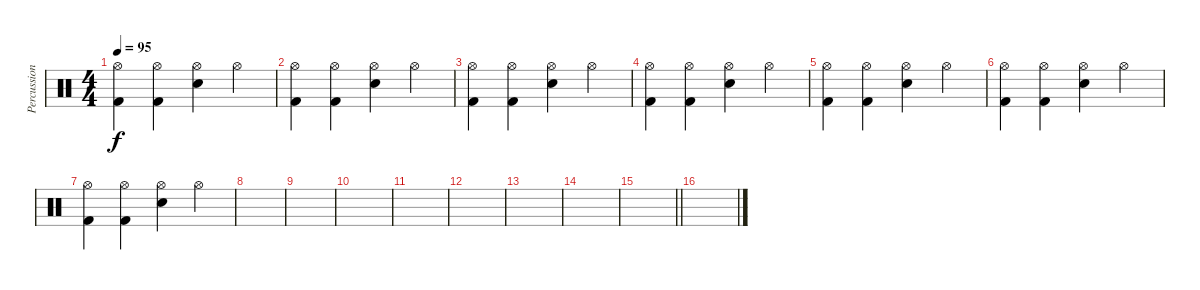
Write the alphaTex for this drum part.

\track ("Percussion" "Percussion") {instrument percussion}
\staff {score}
\articulation defaults
\ts (4 4)
\tempo 95
\clef neutral
\ks c
("Hi-Hat (open)" "Kick (hit) 2").4{dy f} ("Hi-Hat (open)" "Kick (hit) 2").4 ("Hi-Hat (open)" "Snare (hit) 2").4 "Hi-Hat (open)".4 |
("Hi-Hat (open)" "Kick (hit) 2").4 ("Hi-Hat (open)" "Kick (hit) 2").4 ("Hi-Hat (open)" "Snare (hit) 2").4 "Hi-Hat (open)".4 |
("Hi-Hat (open)" "Kick (hit) 2").4 ("Hi-Hat (open)" "Kick (hit) 2").4 ("Hi-Hat (open)" "Snare (hit) 2").4 "Hi-Hat (open)".4 |
("Hi-Hat (open)" "Kick (hit) 2").4 ("Hi-Hat (open)" "Kick (hit) 2").4 ("Hi-Hat (open)" "Snare (hit) 2").4 "Hi-Hat (open)".4 |
("Hi-Hat (open)" "Kick (hit) 2").4 ("Hi-Hat (open)" "Kick (hit) 2").4 ("Hi-Hat (open)" "Snare (hit) 2").4 "Hi-Hat (open)".4 |
("Hi-Hat (open)" "Kick (hit) 2").4 ("Hi-Hat (open)" "Kick (hit) 2").4 ("Hi-Hat (open)" "Snare (hit) 2").4 "Hi-Hat (open)".4 |
("Hi-Hat (open)" "Kick (hit) 2").4 ("Hi-Hat (open)" "Kick (hit) 2").4 ("Hi-Hat (open)" "Snare (hit) 2").4 "Hi-Hat (open)".4 |
|
|
|
|
|
|
|
\barLineRight lightlight
|
\section ("" "")
